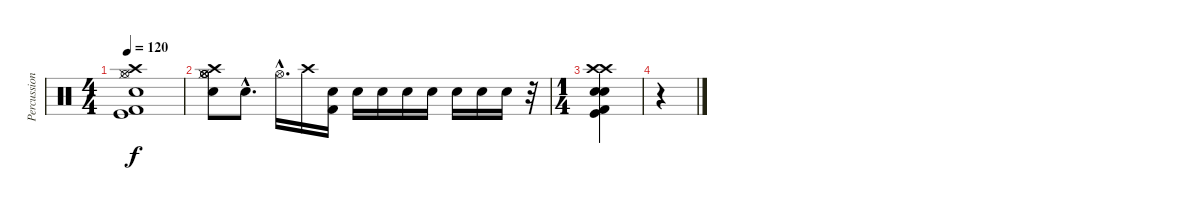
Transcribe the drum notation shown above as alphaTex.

\track ("Percussion" "Percussion") {instrument percussion}
\staff {score}
\articulation defaults
\ts (4 4)
\tempo 120
\clef neutral
\ks c
("Crash high (hit)" "Hi-Hat (open)" "Electric Snare (hit)" "Kick (hit)" "Kick (hit) 2" "Hi-Hat (closed)").1{dy f} |
("Hi-Hat (open)" "Hi-Hat (open)" "Hi-Hat (open)" "Electric Snare (hit)" "Crash high (hit)" "Hi-Hat (closed)").8 "Electric Snare (hit)"{hac}.8{d} "Hi-Hat (open)"{hac}.16{d} "Crash high (hit)".16 ("Electric Snare (hit)" "Kick (hit) 2").16 "Electric Snare (hit)".16 "Electric Snare (hit)".16 "Electric Snare (hit)".16 "Electric Snare (hit)".16 "Electric Snare (hit)".16 "Electric Snare (hit)".16 "Electric Snare (hit)".16 r.32 |
\ts (1 4)
("Crash high (hit)" "Crash high (hit)" "Electric Snare (hit)" "Electric Snare (hit)" "Kick (hit)" "Kick (hit) 2").4 |
r.4
